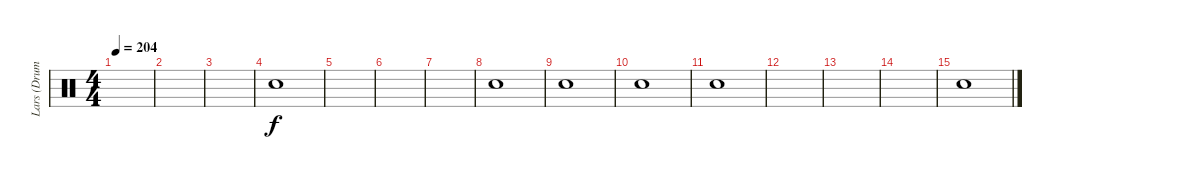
\track ("Lars (Drums)" "Lars (Drum") {instrument percussion}
\staff {score}
\articulation defaults
\ts (4 4)
\tempo 204
\clef neutral
\ks c
|
|
|
"Snare (hit)".1 |
|
|
|
"Snare (hit)".1 |
"Snare (hit)".1 |
"Snare (hit)".1 |
"Snare (hit)".1 |
|
|
|
"Snare (hit)".1
